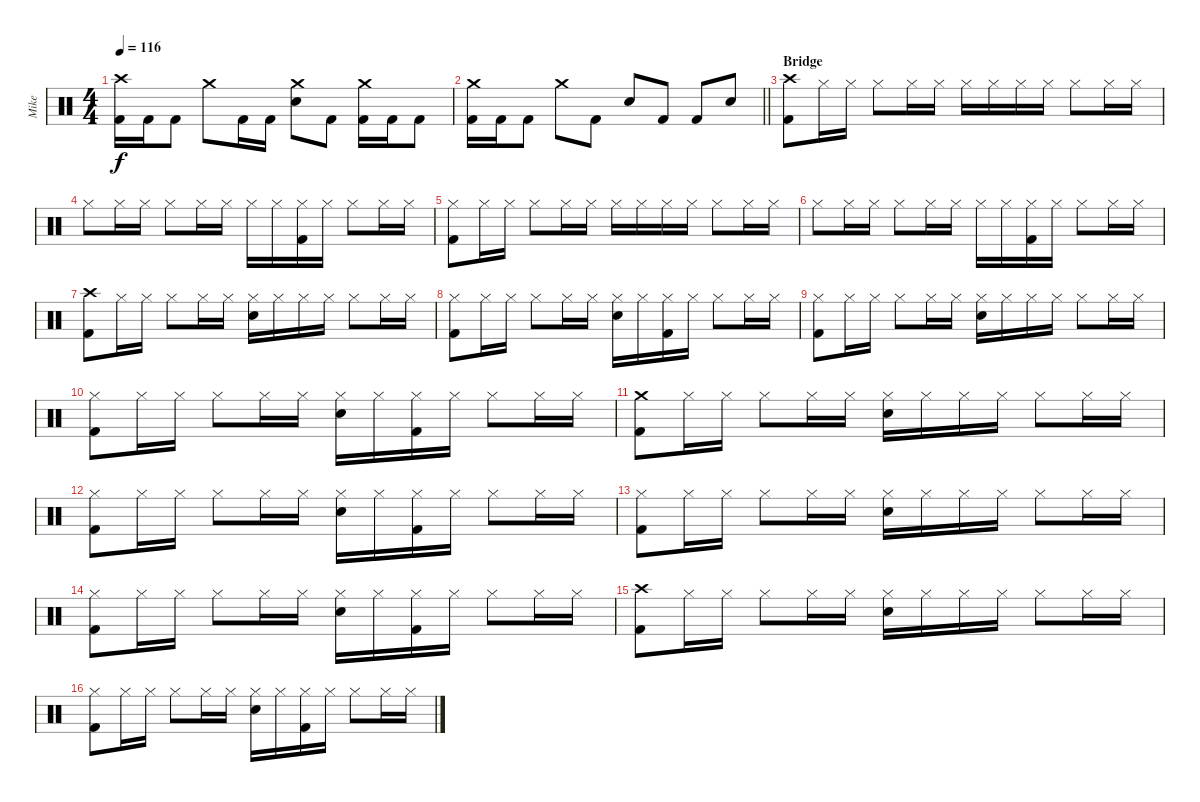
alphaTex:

\track ("Mike" "Mike") {instrument percussion}
\staff {score}
\articulation defaults
\ts (4 4)
\tempo 116
\clef neutral
\ks c
("Crash high (hit)" "Kick (hit) 2").16{dy f} "Kick (hit) 2".16 "Kick (hit) 2".8 "Crash medium (hit)".8 "Kick (hit) 2".16 "Kick (hit) 2".16 ("Crash medium (hit)" "Snare (hit) 2").8 "Kick (hit) 2".8 ("Crash medium (hit)" "Kick (hit) 2").16 "Kick (hit) 2".16 "Kick (hit) 2".8 |
\barLineRight lightlight
("Crash medium (hit)" "Kick (hit) 2").16 "Kick (hit) 2".16 "Kick (hit) 2".8 "Crash medium (hit)".8 "Kick (hit) 2".8 "Snare (hit) 2".8 "Kick (hit) 2".8 "Kick (hit) 2".8 "Snare (hit) 2".8 |
\section ("" "Bridge")
("Crash high (hit)" "Kick (hit) 2").8 "Hi-Hat (closed)".16 "Hi-Hat (closed)".16 "Hi-Hat (closed)".8 "Hi-Hat (closed)".16 "Hi-Hat (closed)".16 "Hi-Hat (closed)".16 "Hi-Hat (closed)".16 "Hi-Hat (closed)".16 "Hi-Hat (closed)".16 "Hi-Hat (closed)".8 "Hi-Hat (closed)".16 "Hi-Hat (closed)".16 |
"Hi-Hat (closed)".8 "Hi-Hat (closed)".16 "Hi-Hat (closed)".16 "Hi-Hat (closed)".8 "Hi-Hat (closed)".16 "Hi-Hat (closed)".16 "Hi-Hat (closed)".16 "Hi-Hat (closed)".16 ("Hi-Hat (closed)" "Kick (hit) 2").16 "Hi-Hat (closed)".16 "Hi-Hat (closed)".8 "Hi-Hat (closed)".16 "Hi-Hat (closed)".16 |
("Hi-Hat (closed)" "Kick (hit) 2").8 "Hi-Hat (closed)".16 "Hi-Hat (closed)".16 "Hi-Hat (closed)".8 "Hi-Hat (closed)".16 "Hi-Hat (closed)".16 "Hi-Hat (closed)".16 "Hi-Hat (closed)".16 "Hi-Hat (closed)".16 "Hi-Hat (closed)".16 "Hi-Hat (closed)".8 "Hi-Hat (closed)".16 "Hi-Hat (closed)".16 |
"Hi-Hat (closed)".8 "Hi-Hat (closed)".16 "Hi-Hat (closed)".16 "Hi-Hat (closed)".8 "Hi-Hat (closed)".16 "Hi-Hat (closed)".16 "Hi-Hat (closed)".16 "Hi-Hat (closed)".16 ("Hi-Hat (closed)" "Kick (hit) 2").16 "Hi-Hat (closed)".16 "Hi-Hat (closed)".8 "Hi-Hat (closed)".16 "Hi-Hat (closed)".16 |
("Crash high (hit)" "Kick (hit) 2").8 "Hi-Hat (closed)".16 "Hi-Hat (closed)".16 "Hi-Hat (closed)".8 "Hi-Hat (closed)".16 "Hi-Hat (closed)".16 ("Snare (hit) 2" "Hi-Hat (closed)").16 "Hi-Hat (closed)".16 "Hi-Hat (closed)".16 "Hi-Hat (closed)".16 "Hi-Hat (closed)".8 "Hi-Hat (closed)".16 "Hi-Hat (closed)".16 |
("Hi-Hat (closed)" "Kick (hit) 2").8 "Hi-Hat (closed)".16 "Hi-Hat (closed)".16 "Hi-Hat (closed)".8 "Hi-Hat (closed)".16 "Hi-Hat (closed)".16 ("Snare (hit) 2" "Hi-Hat (closed)").16 "Hi-Hat (closed)".16 ("Hi-Hat (closed)" "Kick (hit) 2").16 "Hi-Hat (closed)".16 "Hi-Hat (closed)".8 "Hi-Hat (closed)".16 "Hi-Hat (closed)".16 |
("Hi-Hat (closed)" "Kick (hit) 2").8 "Hi-Hat (closed)".16 "Hi-Hat (closed)".16 "Hi-Hat (closed)".8 "Hi-Hat (closed)".16 "Hi-Hat (closed)".16 ("Snare (hit) 2" "Hi-Hat (closed)").16 "Hi-Hat (closed)".16 "Hi-Hat (closed)".16 "Hi-Hat (closed)".16 "Hi-Hat (closed)".8 "Hi-Hat (closed)".16 "Hi-Hat (closed)".16 |
("Hi-Hat (closed)" "Kick (hit) 2").8 "Hi-Hat (closed)".16 "Hi-Hat (closed)".16 "Hi-Hat (closed)".8 "Hi-Hat (closed)".16 "Hi-Hat (closed)".16 ("Snare (hit) 2" "Hi-Hat (closed)").16 "Hi-Hat (closed)".16 ("Hi-Hat (closed)" "Kick (hit) 2").16 "Hi-Hat (closed)".16 "Hi-Hat (closed)".8 "Hi-Hat (closed)".16 "Hi-Hat (closed)".16 |
("Crash medium (hit)" "Kick (hit) 2").8 "Hi-Hat (closed)".16 "Hi-Hat (closed)".16 "Hi-Hat (closed)".8 "Hi-Hat (closed)".16 "Hi-Hat (closed)".16 ("Snare (hit) 2" "Hi-Hat (closed)").16 "Hi-Hat (closed)".16 "Hi-Hat (closed)".16 "Hi-Hat (closed)".16 "Hi-Hat (closed)".8 "Hi-Hat (closed)".16 "Hi-Hat (closed)".16 |
("Hi-Hat (closed)" "Kick (hit) 2").8 "Hi-Hat (closed)".16 "Hi-Hat (closed)".16 "Hi-Hat (closed)".8 "Hi-Hat (closed)".16 "Hi-Hat (closed)".16 ("Snare (hit) 2" "Hi-Hat (closed)").16 "Hi-Hat (closed)".16 ("Hi-Hat (closed)" "Kick (hit) 2").16 "Hi-Hat (closed)".16 "Hi-Hat (closed)".8 "Hi-Hat (closed)".16 "Hi-Hat (closed)".16 |
("Hi-Hat (closed)" "Kick (hit) 2").8 "Hi-Hat (closed)".16 "Hi-Hat (closed)".16 "Hi-Hat (closed)".8 "Hi-Hat (closed)".16 "Hi-Hat (closed)".16 ("Snare (hit) 2" "Hi-Hat (closed)").16 "Hi-Hat (closed)".16 "Hi-Hat (closed)".16 "Hi-Hat (closed)".16 "Hi-Hat (closed)".8 "Hi-Hat (closed)".16 "Hi-Hat (closed)".16 |
("Hi-Hat (closed)" "Kick (hit) 2").8 "Hi-Hat (closed)".16 "Hi-Hat (closed)".16 "Hi-Hat (closed)".8 "Hi-Hat (closed)".16 "Hi-Hat (closed)".16 ("Snare (hit) 2" "Hi-Hat (closed)").16 "Hi-Hat (closed)".16 ("Hi-Hat (closed)" "Kick (hit) 2").16 "Hi-Hat (closed)".16 "Hi-Hat (closed)".8 "Hi-Hat (closed)".16 "Hi-Hat (closed)".16 |
("Crash high (hit)" "Kick (hit) 2").8 "Hi-Hat (closed)".16 "Hi-Hat (closed)".16 "Hi-Hat (closed)".8 "Hi-Hat (closed)".16 "Hi-Hat (closed)".16 ("Snare (hit) 2" "Hi-Hat (closed)").16 "Hi-Hat (closed)".16 "Hi-Hat (closed)".16 "Hi-Hat (closed)".16 "Hi-Hat (closed)".8 "Hi-Hat (closed)".16 "Hi-Hat (closed)".16 |
("Hi-Hat (closed)" "Kick (hit) 2").8 "Hi-Hat (closed)".16 "Hi-Hat (closed)".16 "Hi-Hat (closed)".8 "Hi-Hat (closed)".16 "Hi-Hat (closed)".16 ("Snare (hit) 2" "Hi-Hat (closed)").16 "Hi-Hat (closed)".16 ("Hi-Hat (closed)" "Kick (hit) 2").16 "Hi-Hat (closed)".16 "Hi-Hat (closed)".8 "Hi-Hat (closed)".16 "Hi-Hat (closed)".16
